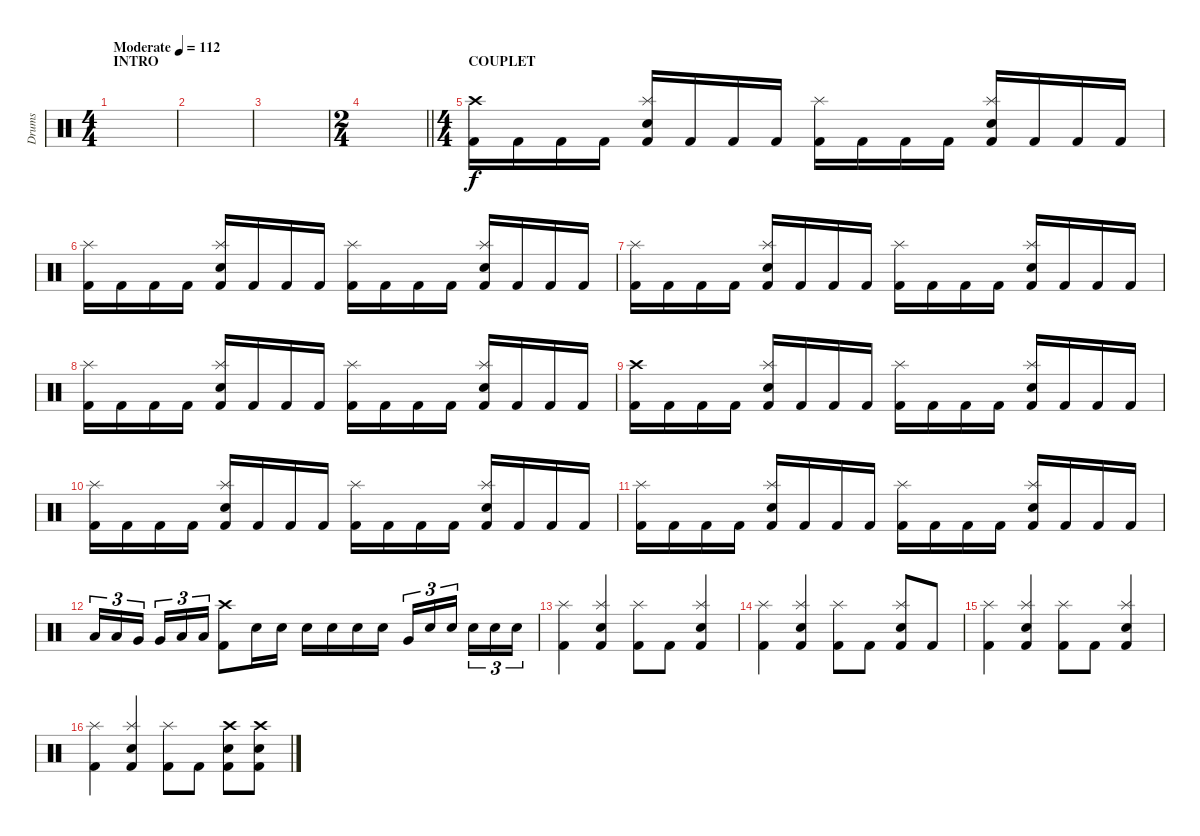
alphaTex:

\track ("Drums" "Drums") {instrument percussion}
\staff {score}
\articulation defaults
\ts (4 4)
\section ("" "INTRO")
\tempo (112 "Moderate")
\clef neutral
\ks c
|
|
|
\ts (2 4)
\barLineRight lightlight
|
\ts (4 4)
\section ("" "COUPLET")
("Crash high (hit)" "Kick (hit) 2").16 "Kick (hit) 2".16 "Kick (hit) 2".16 "Kick (hit) 2".16 ("Splash (hit)" "Electric Snare (hit)" "Kick (hit) 2").16 "Kick (hit) 2".16 "Kick (hit) 2".16 "Kick (hit) 2".16 ("Splash (hit)" "Kick (hit) 2").16 "Kick (hit) 2".16 "Kick (hit) 2".16 "Kick (hit) 2".16 ("Splash (hit)" "Electric Snare (hit)" "Kick (hit) 2").16 "Kick (hit) 2".16 "Kick (hit) 2".16 "Kick (hit) 2".16 |
("Splash (hit)" "Kick (hit) 2").16 "Kick (hit) 2".16 "Kick (hit) 2".16 "Kick (hit) 2".16 ("Splash (hit)" "Electric Snare (hit)" "Kick (hit) 2").16 "Kick (hit) 2".16 "Kick (hit) 2".16 "Kick (hit) 2".16 ("Splash (hit)" "Kick (hit) 2").16 "Kick (hit) 2".16 "Kick (hit) 2".16 "Kick (hit) 2".16 ("Splash (hit)" "Electric Snare (hit)" "Kick (hit) 2").16 "Kick (hit) 2".16 "Kick (hit) 2".16 "Kick (hit) 2".16 |
("Splash (hit)" "Kick (hit) 2").16 "Kick (hit) 2".16 "Kick (hit) 2".16 "Kick (hit) 2".16 ("Splash (hit)" "Electric Snare (hit)" "Kick (hit) 2").16 "Kick (hit) 2".16 "Kick (hit) 2".16 "Kick (hit) 2".16 ("Splash (hit)" "Kick (hit) 2").16 "Kick (hit) 2".16 "Kick (hit) 2".16 "Kick (hit) 2".16 ("Splash (hit)" "Electric Snare (hit)" "Kick (hit) 2").16 "Kick (hit) 2".16 "Kick (hit) 2".16 "Kick (hit) 2".16 |
("Splash (hit)" "Kick (hit) 2").16 "Kick (hit) 2".16 "Kick (hit) 2".16 "Kick (hit) 2".16 ("Splash (hit)" "Electric Snare (hit)" "Kick (hit) 2").16 "Kick (hit) 2".16 "Kick (hit) 2".16 "Kick (hit) 2".16 ("Splash (hit)" "Kick (hit) 2").16 "Kick (hit) 2".16 "Kick (hit) 2".16 "Kick (hit) 2".16 ("Splash (hit)" "Electric Snare (hit)" "Kick (hit) 2").16 "Kick (hit) 2".16 "Kick (hit) 2".16 "Kick (hit) 2".16 |
("Crash high (hit)" "Kick (hit) 2").16 "Kick (hit) 2".16 "Kick (hit) 2".16 "Kick (hit) 2".16 ("Splash (hit)" "Electric Snare (hit)" "Kick (hit) 2").16 "Kick (hit) 2".16 "Kick (hit) 2".16 "Kick (hit) 2".16 ("Splash (hit)" "Kick (hit) 2").16 "Kick (hit) 2".16 "Kick (hit) 2".16 "Kick (hit) 2".16 ("Splash (hit)" "Electric Snare (hit)" "Kick (hit) 2").16 "Kick (hit) 2".16 "Kick (hit) 2".16 "Kick (hit) 2".16 |
("Splash (hit)" "Kick (hit) 2").16 "Kick (hit) 2".16 "Kick (hit) 2".16 "Kick (hit) 2".16 ("Splash (hit)" "Electric Snare (hit)" "Kick (hit) 2").16 "Kick (hit) 2".16 "Kick (hit) 2".16 "Kick (hit) 2".16 ("Splash (hit)" "Kick (hit) 2").16 "Kick (hit) 2".16 "Kick (hit) 2".16 "Kick (hit) 2".16 ("Splash (hit)" "Electric Snare (hit)" "Kick (hit) 2").16 "Kick (hit) 2".16 "Kick (hit) 2".16 "Kick (hit) 2".16 |
("Splash (hit)" "Kick (hit) 2").16 "Kick (hit) 2".16 "Kick (hit) 2".16 "Kick (hit) 2".16 ("Splash (hit)" "Electric Snare (hit)" "Kick (hit) 2").16 "Kick (hit) 2".16 "Kick (hit) 2".16 "Kick (hit) 2".16 ("Splash (hit)" "Kick (hit) 2").16 "Kick (hit) 2".16 "Kick (hit) 2".16 "Kick (hit) 2".16 ("Splash (hit)" "Electric Snare (hit)" "Kick (hit) 2").16 "Kick (hit) 2".16 "Kick (hit) 2".16 "Kick (hit) 2".16 |
"Low Tom (hit)".16{tu (3 2)} "Low Tom (hit)".16{tu (3 2)} "Very Low Tom (hit)".16{tu (3 2) beam splitsecondary} "Very Low Tom (hit)".16{tu (3 2)} "Low Floor Tom (hit)".16{tu (3 2)} "Low Floor Tom (hit)".16{tu (3 2)} ("Crash high (hit)" "Kick (hit) 2").8 "Electric Snare (hit)".16 "Electric Snare (hit)".16 "Electric Snare (hit)".16 "Electric Snare (hit)".16 "Electric Snare (hit)".16 "Electric Snare (hit)".16 "Very Low Tom (hit)".16{tu (3 2)} "Electric Snare (hit)".16{tu (3 2)} "Electric Snare (hit)".16{tu (3 2) beam splitsecondary} "Electric Snare (hit)".16{tu (3 2)} "Electric Snare (hit)".16{tu (3 2)} "Electric Snare (hit)".16{tu (3 2)} |
("Splash (hit)" "Kick (hit) 2").4 ("Splash (hit)" "Electric Snare (hit)" "Kick (hit) 2").4 ("Splash (hit)" "Kick (hit) 2").8 "Kick (hit) 2".8 ("Splash (hit)" "Electric Snare (hit)" "Kick (hit) 2").4 |
("Splash (hit)" "Kick (hit) 2").4 ("Splash (hit)" "Electric Snare (hit)" "Kick (hit) 2").4 ("Splash (hit)" "Kick (hit) 2").8 "Kick (hit) 2".8 ("Splash (hit)" "Electric Snare (hit)" "Kick (hit) 2").8 "Kick (hit) 2".8 |
("Splash (hit)" "Kick (hit) 2").4 ("Splash (hit)" "Electric Snare (hit)" "Kick (hit) 2").4 ("Splash (hit)" "Kick (hit) 2").8 "Kick (hit) 2".8 ("Splash (hit)" "Electric Snare (hit)" "Kick (hit) 2").4 |
("Splash (hit)" "Kick (hit) 2").4 ("Splash (hit)" "Electric Snare (hit)" "Kick (hit) 2").4 ("Splash (hit)" "Kick (hit) 2").8 "Kick (hit) 2".8 ("Crash high (hit)" "Electric Snare (hit)" "Kick (hit) 2").8 ("Crash high (hit)" "Electric Snare (hit)" "Kick (hit) 2").8
